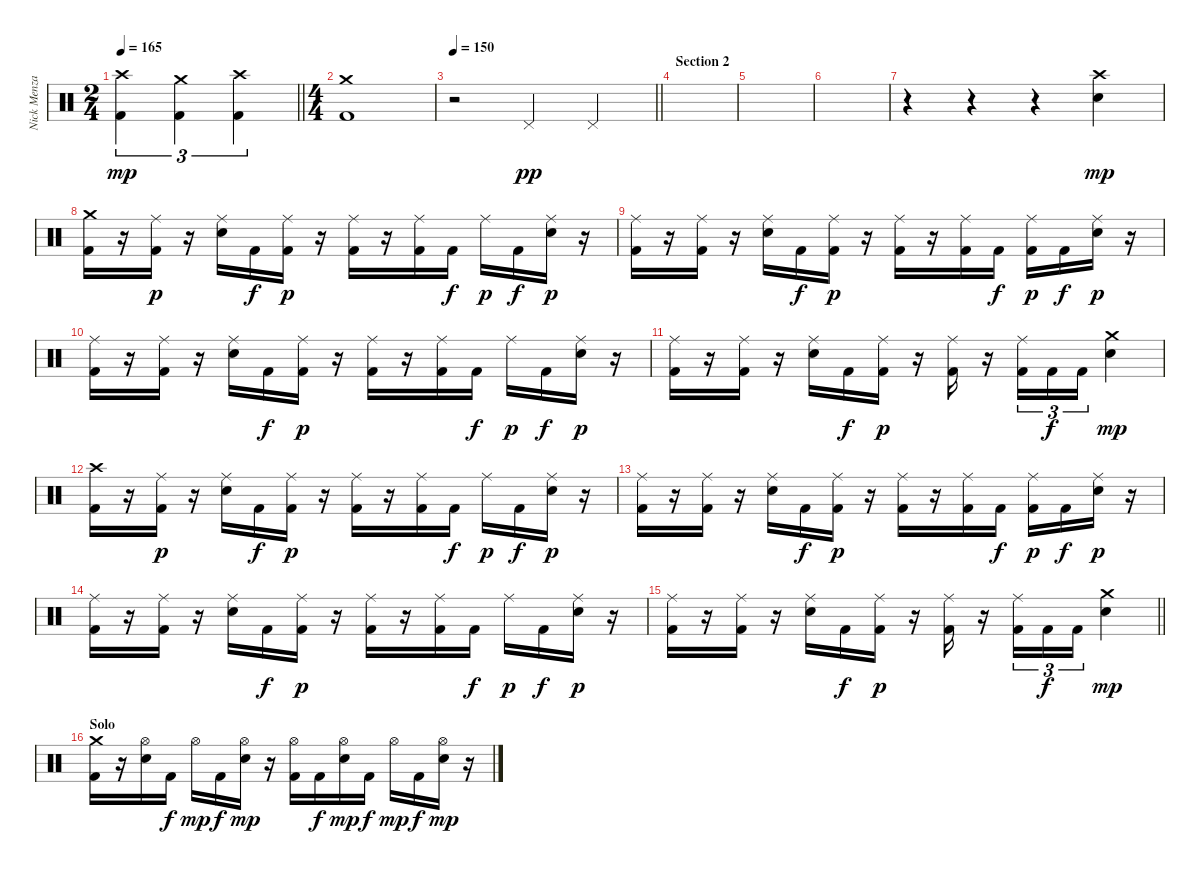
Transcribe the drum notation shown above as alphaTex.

\track ("Nick Menza" "Nick Menza") {solo instrument percussion}
\staff {score}
\articulation defaults
\ts (2 4)
\tempo 165
\clef neutral
\barLineRight lightlight
\ks c
("Crash high (hit)" "Kick (hit) 2").4{tu (3 2) dy mp} ("Crash medium (hit)" "Kick (hit) 2").4{tu (3 2)} ("Crash high (hit)" "Kick (hit) 2").4{tu (3 2)} |
\ts (4 4)
("Crash medium (hit)" "Kick (hit) 2").1 |
\tempo 150
\barLineRight lightlight
r.2 "Pedal Hi-Hat (hit)".4{dy pp} "Pedal Hi-Hat (hit)".4 |
\section ("" "Section 2")
|
|
|
r.4 r.4 r.4 ("Crash high (hit)" "Electric Snare (hit)").4{dy mp} |
("Crash medium (hit)" "Kick (hit) 2").16 r.16 ("Ride (middle)" "Kick (hit) 2").16{dy p} r.16 ("Ride (middle)" "Electric Snare (hit)").16 "Kick (hit) 2".16{dy f} ("Ride (middle)" "Kick (hit) 2").16{dy p} r.16 ("Ride (middle)" "Kick (hit) 2").16 r.16 ("Ride (middle)" "Kick (hit) 2").16 "Kick (hit) 2".16{dy f} "Ride (middle)".16{dy p} "Kick (hit) 2".16{dy f} ("Ride (middle)" "Electric Snare (hit)").16{dy p} r.16 |
("Ride (middle)" "Kick (hit) 2").16 r.16 ("Ride (middle)" "Kick (hit) 2").16 r.16 ("Ride (middle)" "Electric Snare (hit)").16 "Kick (hit) 2".16{dy f} ("Ride (middle)" "Kick (hit) 2").16{dy p} r.16 ("Ride (middle)" "Kick (hit) 2").16 r.16 ("Ride (middle)" "Kick (hit) 2").16 "Kick (hit) 2".16{dy f} ("Ride (middle)" "Kick (hit) 2").16{dy p} "Kick (hit) 2".16{dy f} ("Ride (middle)" "Electric Snare (hit)").16{dy p} r.16 |
("Ride (middle)" "Kick (hit) 2").16 r.16 ("Ride (middle)" "Kick (hit) 2").16 r.16 ("Ride (middle)" "Electric Snare (hit)").16 "Kick (hit) 2".16{dy f} ("Ride (middle)" "Kick (hit) 2").16{dy p} r.16 ("Ride (middle)" "Kick (hit) 2").16 r.16 ("Ride (middle)" "Kick (hit) 2").16 "Kick (hit) 2".16{dy f} "Ride (middle)".16{dy p} "Kick (hit) 2".16{dy f} ("Ride (middle)" "Electric Snare (hit)").16{dy p} r.16 |
("Ride (middle)" "Kick (hit) 2").16 r.16 ("Ride (middle)" "Kick (hit) 2").16 r.16 ("Ride (middle)" "Electric Snare (hit)").16 "Kick (hit) 2".16{dy f} ("Ride (middle)" "Kick (hit) 2").16{dy p} r.16 ("Ride (middle)" "Kick (hit) 2").16 r.16 ("Ride (middle)" "Kick (hit) 2").16{tu (3 2)} "Kick (hit) 2".16{tu (3 2) dy f} "Kick (hit) 2".16{tu (3 2)} ("Crash medium (hit)" "Electric Snare (hit)").4{dy mp} |
("Crash high (hit)" "Kick (hit) 2").16 r.16 ("Ride (middle)" "Kick (hit) 2").16{dy p} r.16 ("Ride (middle)" "Electric Snare (hit)").16 "Kick (hit) 2".16{dy f} ("Ride (middle)" "Kick (hit) 2").16{dy p} r.16 ("Ride (middle)" "Kick (hit) 2").16 r.16 ("Ride (middle)" "Kick (hit) 2").16 "Kick (hit) 2".16{dy f} "Ride (middle)".16{dy p} "Kick (hit) 2".16{dy f} ("Ride (middle)" "Electric Snare (hit)").16{dy p} r.16 |
("Ride (middle)" "Kick (hit) 2").16 r.16 ("Ride (middle)" "Kick (hit) 2").16 r.16 ("Ride (middle)" "Electric Snare (hit)").16 "Kick (hit) 2".16{dy f} ("Ride (middle)" "Kick (hit) 2").16{dy p} r.16 ("Ride (middle)" "Kick (hit) 2").16 r.16 ("Ride (middle)" "Kick (hit) 2").16 "Kick (hit) 2".16{dy f} ("Ride (middle)" "Kick (hit) 2").16{dy p} "Kick (hit) 2".16{dy f} ("Ride (middle)" "Electric Snare (hit)").16{dy p} r.16 |
("Ride (middle)" "Kick (hit) 2").16 r.16 ("Ride (middle)" "Kick (hit) 2").16 r.16 ("Ride (middle)" "Electric Snare (hit)").16 "Kick (hit) 2".16{dy f} ("Ride (middle)" "Kick (hit) 2").16{dy p} r.16 ("Ride (middle)" "Kick (hit) 2").16 r.16 ("Ride (middle)" "Kick (hit) 2").16 "Kick (hit) 2".16{dy f} "Ride (middle)".16{dy p} "Kick (hit) 2".16{dy f} ("Ride (middle)" "Electric Snare (hit)").16{dy p} r.16 |
\barLineRight lightlight
("Ride (middle)" "Kick (hit) 2").16 r.16 ("Ride (middle)" "Kick (hit) 2").16 r.16 ("Ride (middle)" "Electric Snare (hit)").16 "Kick (hit) 2".16{dy f} ("Ride (middle)" "Kick (hit) 2").16{dy p} r.16 ("Ride (middle)" "Kick (hit) 2").16 r.16 ("Ride (middle)" "Kick (hit) 2").16{tu (3 2)} "Kick (hit) 2".16{tu (3 2) dy f} "Kick (hit) 2".16{tu (3 2)} ("Crash medium (hit)" "Electric Snare (hit)").4{dy mp} |
\section ("" "Solo")
("Crash medium (hit)" "Kick (hit) 2").16 r.16 ("Hi-Hat (open)" "Electric Snare (hit)").16 "Kick (hit) 2".16{dy f} "Hi-Hat (open)".16{dy mp} "Kick (hit) 2".16{dy f} ("Hi-Hat (open)" "Electric Snare (hit)").16{dy mp} r.16 ("Hi-Hat (open)" "Kick (hit) 2").16 "Kick (hit) 2".16{dy f} ("Hi-Hat (open)" "Electric Snare (hit)").16{dy mp} "Kick (hit) 2".16{dy f} "Hi-Hat (open)".16{dy mp} "Kick (hit) 2".16{dy f} ("Hi-Hat (open)" "Electric Snare (hit)").16{dy mp} r.16
